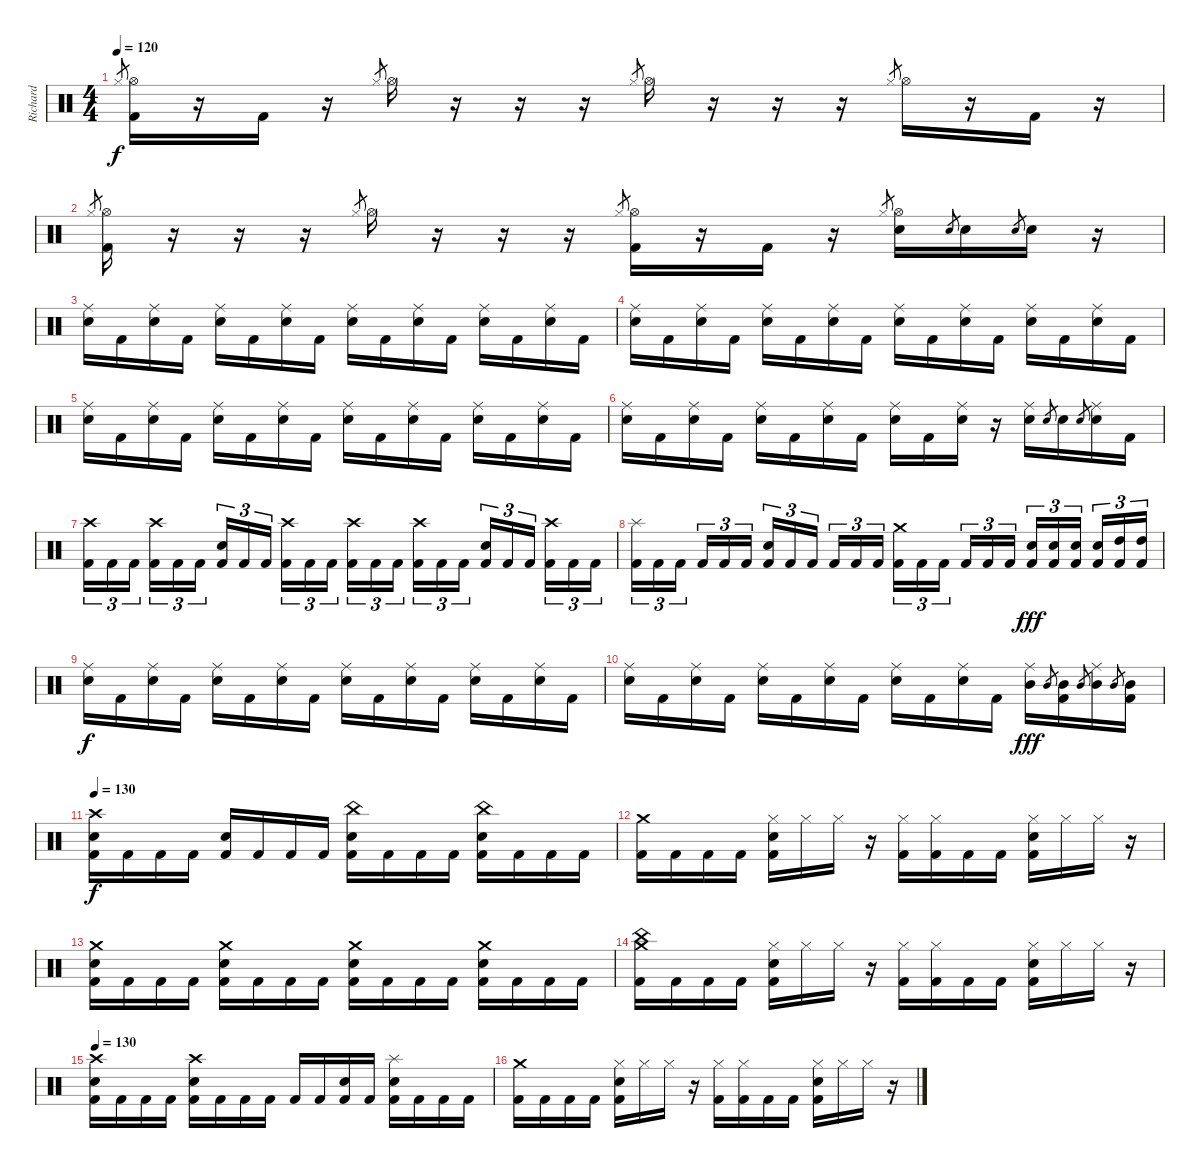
\track ("Richard " "Richard ") {instrument percussion}
\staff {score}
\articulation defaults
\ts (4 4)
\tempo 120
\clef neutral
\ks c "Hi-Hat (closed)".8{gr dy f}
("Hi-Hat (open)" "Kick (hit) 2").16 r.16 "Kick (hit) 2".16 r.16 "Hi-Hat (closed)".8{gr} "Hi-Hat (open)".16 r.16 r.16 r.16 "Hi-Hat (closed)".8{gr} "Hi-Hat (open)".16 r.16 r.16 r.16 "Hi-Hat (closed)".8{gr} "Hi-Hat (open)".16 r.16 "Kick (hit) 2".16 r.16 |
"Hi-Hat (closed)".8{gr} ("Hi-Hat (open)" "Kick (hit) 2").16 r.16 r.16 r.16 "Hi-Hat (closed)".8{gr} "Hi-Hat (open)".16 r.16 r.16 r.16 "Hi-Hat (closed)".8{gr} ("Hi-Hat (open)" "Kick (hit) 2").16 r.16 "Kick (hit) 2".16 r.16 "Hi-Hat (closed)".8{gr} ("Hi-Hat (open)" "Snare (hit) 2").16 "Snare (hit) 2".8{gr} "Snare (hit) 2".16 "Snare (hit) 2".8{gr} "Snare (hit) 2".16 r.16 |
("Ride (middle)" "Snare (hit) 2").16 "Kick (hit) 2".16 ("Ride (middle)" "Snare (hit) 2").16 "Kick (hit) 2".16 ("Ride (middle)" "Snare (hit) 2").16 "Kick (hit) 2".16 ("Ride (middle)" "Snare (hit) 2").16 "Kick (hit) 2".16 ("Ride (middle)" "Snare (hit) 2").16 "Kick (hit) 2".16 ("Ride (middle)" "Snare (hit) 2").16 "Kick (hit) 2".16 ("Ride (middle)" "Snare (hit) 2").16 "Kick (hit) 2".16 ("Ride (middle)" "Snare (hit) 2").16 "Kick (hit) 2".16 |
("Ride (middle)" "Snare (hit) 2").16 "Kick (hit) 2".16 ("Ride (middle)" "Snare (hit) 2").16 "Kick (hit) 2".16 ("Ride (middle)" "Snare (hit) 2").16 "Kick (hit) 2".16 ("Ride (middle)" "Snare (hit) 2").16 "Kick (hit) 2".16 ("Ride (middle)" "Snare (hit) 2").16 "Kick (hit) 2".16 ("Ride (middle)" "Snare (hit) 2").16 "Kick (hit) 2".16 ("Ride (middle)" "Snare (hit) 2").16 "Kick (hit) 2".16 ("Ride (middle)" "Snare (hit) 2").16 "Kick (hit) 2".16 |
("Ride (middle)" "Snare (hit) 2").16 "Kick (hit) 2".16 ("Ride (middle)" "Snare (hit) 2").16 "Kick (hit) 2".16 ("Ride (middle)" "Snare (hit) 2").16 "Kick (hit) 2".16 ("Ride (middle)" "Snare (hit) 2").16 "Kick (hit) 2".16 ("Ride (middle)" "Snare (hit) 2").16 "Kick (hit) 2".16 ("Ride (middle)" "Snare (hit) 2").16 "Kick (hit) 2".16 ("Ride (middle)" "Snare (hit) 2").16 "Kick (hit) 2".16 ("Ride (middle)" "Snare (hit) 2").16 "Kick (hit) 2".16 |
("Ride (middle)" "Snare (hit) 2").16 "Kick (hit) 2".16 ("Ride (middle)" "Snare (hit) 2").16 "Kick (hit) 2".16 ("Ride (middle)" "Snare (hit) 2").16 "Kick (hit) 2".16 ("Ride (middle)" "Snare (hit) 2").16 "Kick (hit) 2".16 ("Ride (middle)" "Snare (hit) 2").16 "Kick (hit) 2".16 ("Ride (middle)" "Snare (hit) 2").16 r.16 ("Ride (middle)" "Snare (hit) 2").16 "Snare (hit) 2".8{gr} "Snare (hit) 2".16 "Snare (hit) 2".8{gr} ("Ride (middle)" "Snare (hit) 2").16 "Kick (hit) 2".16 |
("Crash high (hit)" "Kick (hit) 2").16{tu (3 2)} "Kick (hit) 2".16{tu (3 2)} "Kick (hit) 2".16{tu (3 2)} ("Crash high (hit)" "Kick (hit) 2").16{tu (3 2)} "Kick (hit) 2".16{tu (3 2)} "Kick (hit) 2".16{tu (3 2)} ("Snare (hit) 2" "Kick (hit) 2").16{tu (3 2)} "Kick (hit) 2".16{tu (3 2)} "Kick (hit) 2".16{tu (3 2)} ("Crash high (hit)" "Kick (hit) 2").16{tu (3 2)} "Kick (hit) 2".16{tu (3 2)} "Kick (hit) 2".16{tu (3 2)} ("Crash high (hit)" "Kick (hit) 2").16{tu (3 2)} "Kick (hit) 2".16{tu (3 2)} "Kick (hit) 2".16{tu (3 2)} ("Crash high (hit)" "Kick (hit) 2").16{tu (3 2)} "Kick (hit) 2".16{tu (3 2)} "Kick (hit) 2".16{tu (3 2)} ("Snare (hit) 2" "Kick (hit) 2").16{tu (3 2)} "Kick (hit) 2".16{tu (3 2)} "Kick (hit) 2".16{tu (3 2)} ("Crash high (hit)" "Kick (hit) 2").16{tu (3 2)} "Kick (hit) 2".16{tu (3 2)} "Kick (hit) 2".16{tu (3 2)} |
("Splash (hit)" "Kick (hit) 2").16{tu (3 2)} "Kick (hit) 2".16{tu (3 2)} "Kick (hit) 2".16{tu (3 2)} "Kick (hit) 2".16{tu (3 2)} "Kick (hit) 2".16{tu (3 2)} "Kick (hit) 2".16{tu (3 2)} ("Snare (hit) 2" "Kick (hit) 2").16{tu (3 2)} "Kick (hit) 2".16{tu (3 2)} "Kick (hit) 2".16{tu (3 2)} "Kick (hit) 2".16{tu (3 2)} "Kick (hit) 2".16{tu (3 2)} "Kick (hit) 2".16{tu (3 2)} ("Crash medium (hit)" "Kick (hit) 2").16{tu (3 2)} "Kick (hit) 2".16{tu (3 2)} "Kick (hit) 2".16{tu (3 2)} "Kick (hit) 2".16{tu (3 2)} "Kick (hit) 2".16{tu (3 2)} "Kick (hit) 2".16{tu (3 2)} ("Electric Snare (hit)" "Kick (hit) 2").16{tu (3 2) dy fff} ("Electric Snare (hit)" "Kick (hit) 2").16{tu (3 2)} ("Snare (hit) 2" "Kick (hit) 2").16{tu (3 2)} ("Snare (hit) 2" "Kick (hit) 2").16{tu (3 2)} ("High Tom (hit)" "Kick (hit) 2").16{tu (3 2)} ("High Tom (hit)" "Kick (hit) 2").16{tu (3 2)} |
("Ride (middle)" "Snare (hit) 2").16{dy f} "Kick (hit) 2".16 ("Ride (middle)" "Snare (hit) 2").16 "Kick (hit) 2".16 ("Ride (middle)" "Snare (hit) 2").16 "Kick (hit) 2".16 ("Ride (middle)" "Snare (hit) 2").16 "Kick (hit) 2".16 ("Ride (middle)" "Snare (hit) 2").16 "Kick (hit) 2".16 ("Ride (middle)" "Snare (hit) 2").16 "Kick (hit) 2".16 ("Ride (middle)" "Snare (hit) 2").16 "Kick (hit) 2".16 ("Ride (middle)" "Snare (hit) 2").16 "Kick (hit) 2".16 |
("Ride (middle)" "Snare (hit) 2").16 "Kick (hit) 2".16 ("Ride (middle)" "Snare (hit) 2").16 "Kick (hit) 2".16 ("Ride (middle)" "Snare (hit) 2").16 "Kick (hit) 2".16 ("Ride (middle)" "Snare (hit) 2").16 "Kick (hit) 2".16 ("Ride (middle)" "Snare (hit) 2").16 "Kick (hit) 2".16 ("Ride (middle)" "Snare (hit) 2").16 "Kick (hit) 2".16 ("Ride (middle)" "Mid Tom (hit)").16{dy fff} "Mid Tom (hit)".8{gr} ("Mid Tom (hit)" "Kick (hit) 2").16 "Mid Tom (hit)".8{gr} ("Ride (middle)" "Mid Tom (hit)").16 "Mid Tom (hit)".8{gr} ("Mid Tom (hit)" "Kick (hit) 2").16 |
\tempo 130
("Crash high (hit)" "Snare (hit) 2" "Kick (hit) 2").16{dy f} "Kick (hit) 2".16 "Kick (hit) 2".16 "Kick (hit) 2".16 ("Snare (hit) 2" "Kick (hit) 2").16 "Kick (hit) 2".16 "Kick (hit) 2".16 "Kick (hit) 2".16 ("China (hit)" "Snare (hit) 2" "Kick (hit) 2").16 "Kick (hit) 2".16 "Kick (hit) 2".16 "Kick (hit) 2".16 ("China (hit)" "Snare (hit) 2" "Kick (hit) 2").16 "Kick (hit) 2".16 "Kick (hit) 2".16 "Kick (hit) 2".16 |
("Crash medium (hit)" "Kick (hit) 2").16 "Kick (hit) 2".16 "Kick (hit) 2".16 "Kick (hit) 2".16 ("Hi-Hat (closed)" "Snare (hit) 2" "Kick (hit) 2").16 "Hi-Hat (closed)".16 "Hi-Hat (closed)".16 r.16 ("Hi-Hat (closed)" "Kick (hit) 2").16 ("Hi-Hat (closed)" "Kick (hit) 2").16 "Kick (hit) 2".16 "Kick (hit) 2".16 ("Hi-Hat (closed)" "Snare (hit) 2" "Kick (hit) 2").16 "Hi-Hat (closed)".16 "Hi-Hat (closed)".16 r.16 |
("Crash medium (hit)" "Snare (hit) 2" "Kick (hit) 2").16 "Kick (hit) 2".16 "Kick (hit) 2".16 "Kick (hit) 2".16 ("Crash medium (hit)" "Snare (hit) 2" "Kick (hit) 2").16 "Kick (hit) 2".16 "Kick (hit) 2".16 "Kick (hit) 2".16 ("Crash medium (hit)" "Snare (hit) 2" "Kick (hit) 2").16 "Kick (hit) 2".16 "Kick (hit) 2".16 "Kick (hit) 2".16 ("Crash medium (hit)" "Snare (hit) 2" "Kick (hit) 2").16 "Kick (hit) 2".16 "Kick (hit) 2".16 "Kick (hit) 2".16 |
("Crash medium (hit)" "China (hit)" "Kick (hit) 2").16 "Kick (hit) 2".16 "Kick (hit) 2".16 "Kick (hit) 2".16 ("Hi-Hat (closed)" "Snare (hit) 2" "Kick (hit) 2").16 "Hi-Hat (closed)".16 "Hi-Hat (closed)".16 r.16 ("Hi-Hat (closed)" "Kick (hit) 2").16 ("Hi-Hat (closed)" "Kick (hit) 2").16 "Kick (hit) 2".16 "Kick (hit) 2".16 ("Hi-Hat (closed)" "Snare (hit) 2" "Kick (hit) 2").16 "Hi-Hat (closed)".16 "Hi-Hat (closed)".16 r.16 |
\tempo 130
("Crash high (hit)" "Snare (hit) 2" "Kick (hit) 2").16 "Kick (hit) 2".16 "Kick (hit) 2".16 "Kick (hit) 2".16 ("Crash high (hit)" "Snare (hit) 2" "Kick (hit) 2").16 "Kick (hit) 2".16 "Kick (hit) 2".16 "Kick (hit) 2".16 "Kick (hit) 2".16 "Kick (hit) 2".16 ("Snare (hit) 2" "Kick (hit) 2").16 "Kick (hit) 2".16 ("Splash (hit)" "Snare (hit) 2" "Kick (hit) 2").16 "Kick (hit) 2".16 "Kick (hit) 2".16 "Kick (hit) 2".16 |
("Crash medium (hit)" "Kick (hit) 2").16 "Kick (hit) 2".16 "Kick (hit) 2".16 "Kick (hit) 2".16 ("Hi-Hat (closed)" "Snare (hit) 2" "Kick (hit) 2").16 "Hi-Hat (closed)".16 "Hi-Hat (closed)".16 r.16 ("Hi-Hat (closed)" "Kick (hit) 2").16 ("Hi-Hat (closed)" "Kick (hit) 2").16 "Kick (hit) 2".16 "Kick (hit) 2".16 ("Hi-Hat (closed)" "Snare (hit) 2" "Kick (hit) 2").16 "Hi-Hat (closed)".16 "Hi-Hat (closed)".16 r.16
